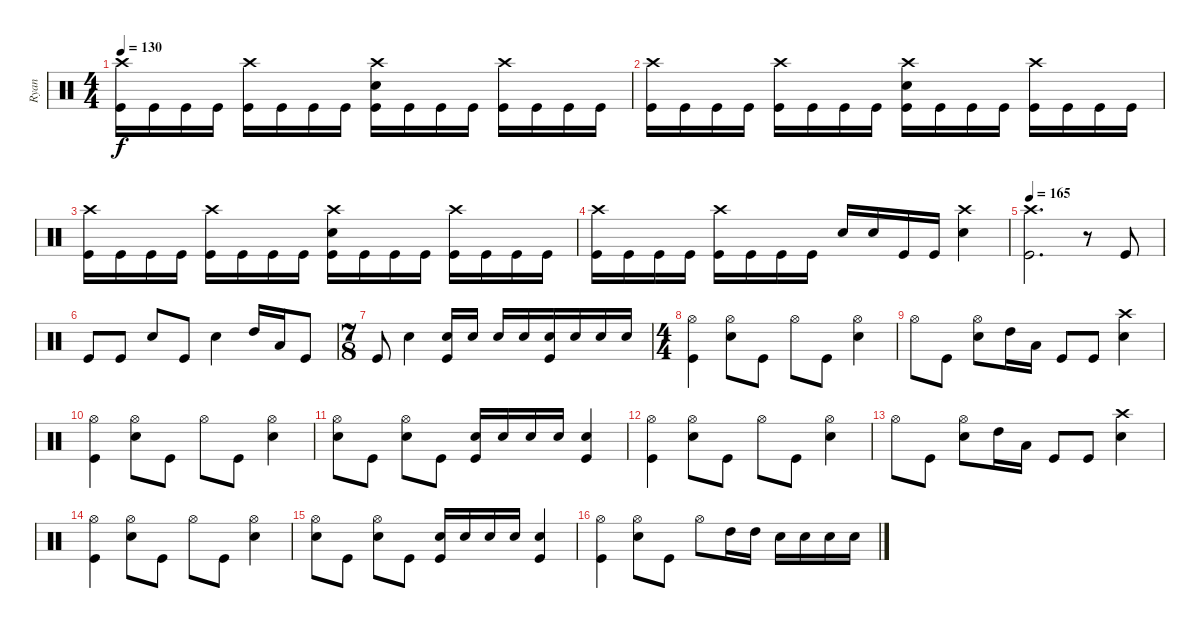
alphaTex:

\track ("Ryan" "Ryan") {instrument percussion}
\staff {score}
\articulation defaults
\ts (4 4)
\tempo 130
\clef neutral
\ks c
("Crash high (hit)" "Kick (hit)").16{dy f} "Kick (hit)".16 "Kick (hit)".16 "Kick (hit)".16 ("Crash high (hit)" "Kick (hit)").16 "Kick (hit)".16 "Kick (hit)".16 "Kick (hit)".16 ("Crash high (hit)" "Electric Snare (hit)" "Kick (hit)").16 "Kick (hit)".16 "Kick (hit)".16 "Kick (hit)".16 ("Crash high (hit)" "Kick (hit)").16 "Kick (hit)".16 "Kick (hit)".16 "Kick (hit)".16 |
("Crash high (hit)" "Kick (hit)").16 "Kick (hit)".16 "Kick (hit)".16 "Kick (hit)".16 ("Crash high (hit)" "Kick (hit)").16 "Kick (hit)".16 "Kick (hit)".16 "Kick (hit)".16 ("Crash high (hit)" "Electric Snare (hit)" "Kick (hit)").16 "Kick (hit)".16 "Kick (hit)".16 "Kick (hit)".16 ("Crash high (hit)" "Kick (hit)").16 "Kick (hit)".16 "Kick (hit)".16 "Kick (hit)".16 |
("Crash high (hit)" "Kick (hit)").16 "Kick (hit)".16 "Kick (hit)".16 "Kick (hit)".16 ("Crash high (hit)" "Kick (hit)").16 "Kick (hit)".16 "Kick (hit)".16 "Kick (hit)".16 ("Crash high (hit)" "Electric Snare (hit)" "Kick (hit)").16 "Kick (hit)".16 "Kick (hit)".16 "Kick (hit)".16 ("Crash high (hit)" "Kick (hit)").16 "Kick (hit)".16 "Kick (hit)".16 "Kick (hit)".16 |
("Crash high (hit)" "Kick (hit)").16 "Kick (hit)".16 "Kick (hit)".16 "Kick (hit)".16 ("Crash high (hit)" "Kick (hit)").16 "Kick (hit)".16 "Kick (hit)".16 "Kick (hit)".16 "Electric Snare (hit)".16 "Electric Snare (hit)".16 "Kick (hit)".16 "Kick (hit)".16 ("Crash high (hit)" "Electric Snare (hit)").4 |
\tempo 165
("Crash high (hit)" "Kick (hit)").2{d} r.8 "Kick (hit)".8 |
"Kick (hit)".8 "Kick (hit)".8 "Electric Snare (hit)".8 "Kick (hit)".8 "Electric Snare (hit)".4 "High Tom (hit)".16 "Low Floor Tom (hit)".16 "Kick (hit)".8 |
\ts (7 8)
"Kick (hit)".8 "Electric Snare (hit)".4 ("Electric Snare (hit)" "Kick (hit)").16 "Electric Snare (hit)".16 "Electric Snare (hit)".16 "Electric Snare (hit)".16 ("Electric Snare (hit)" "Kick (hit)").16 "Electric Snare (hit)".16 "Electric Snare (hit)".16 "Electric Snare (hit)".16 |
\ts (4 4)
("Hi-Hat (open)" "Kick (hit)").4 ("Hi-Hat (open)" "Electric Snare (hit)").8 "Kick (hit)".8 "Hi-Hat (open)".8 "Kick (hit)".8 ("Hi-Hat (open)" "Electric Snare (hit)").4 |
"Hi-Hat (open)".8 "Kick (hit)".8 ("Hi-Hat (open)" "Electric Snare (hit)").8 "High Tom (hit)".16 "Low Floor Tom (hit)".16 "Kick (hit)".8 "Kick (hit)".8 ("Crash high (hit)" "Electric Snare (hit)").4 |
("Hi-Hat (open)" "Kick (hit)").4 ("Hi-Hat (open)" "Electric Snare (hit)").8 "Kick (hit)".8 "Hi-Hat (open)".8 "Kick (hit)".8 ("Hi-Hat (open)" "Electric Snare (hit)").4 |
("Hi-Hat (open)" "Electric Snare (hit)").8 "Kick (hit)".8 ("Hi-Hat (open)" "Electric Snare (hit)").8 "Kick (hit)".8 ("Electric Snare (hit)" "Kick (hit)").16 "Electric Snare (hit)".16 "Electric Snare (hit)".16 "Electric Snare (hit)".16 ("Electric Snare (hit)" "Kick (hit)").4 |
("Hi-Hat (open)" "Kick (hit)").4 ("Hi-Hat (open)" "Electric Snare (hit)").8 "Kick (hit)".8 "Hi-Hat (open)".8 "Kick (hit)".8 ("Hi-Hat (open)" "Electric Snare (hit)").4 |
"Hi-Hat (open)".8 "Kick (hit)".8 ("Hi-Hat (open)" "Electric Snare (hit)").8 "High Tom (hit)".16 "Low Floor Tom (hit)".16 "Kick (hit)".8 "Kick (hit)".8 ("Crash high (hit)" "Electric Snare (hit)").4 |
("Hi-Hat (open)" "Kick (hit)").4 ("Hi-Hat (open)" "Electric Snare (hit)").8 "Kick (hit)".8 "Hi-Hat (open)".8 "Kick (hit)".8 ("Hi-Hat (open)" "Electric Snare (hit)").4 |
("Hi-Hat (open)" "Electric Snare (hit)").8 "Kick (hit)".8 ("Hi-Hat (open)" "Electric Snare (hit)").8 "Kick (hit)".8 ("Electric Snare (hit)" "Kick (hit)").16 "Electric Snare (hit)".16 "Electric Snare (hit)".16 "Electric Snare (hit)".16 ("Electric Snare (hit)" "Kick (hit)").4 |
("Hi-Hat (open)" "Kick (hit)").4 ("Hi-Hat (open)" "Electric Snare (hit)").8 "Kick (hit)".8 "Hi-Hat (open)".8 "High Tom (hit)".16 "High Tom (hit)".16 "Electric Snare (hit)".16 "Electric Snare (hit)".16 "Electric Snare (hit)".16 "Electric Snare (hit)".16
